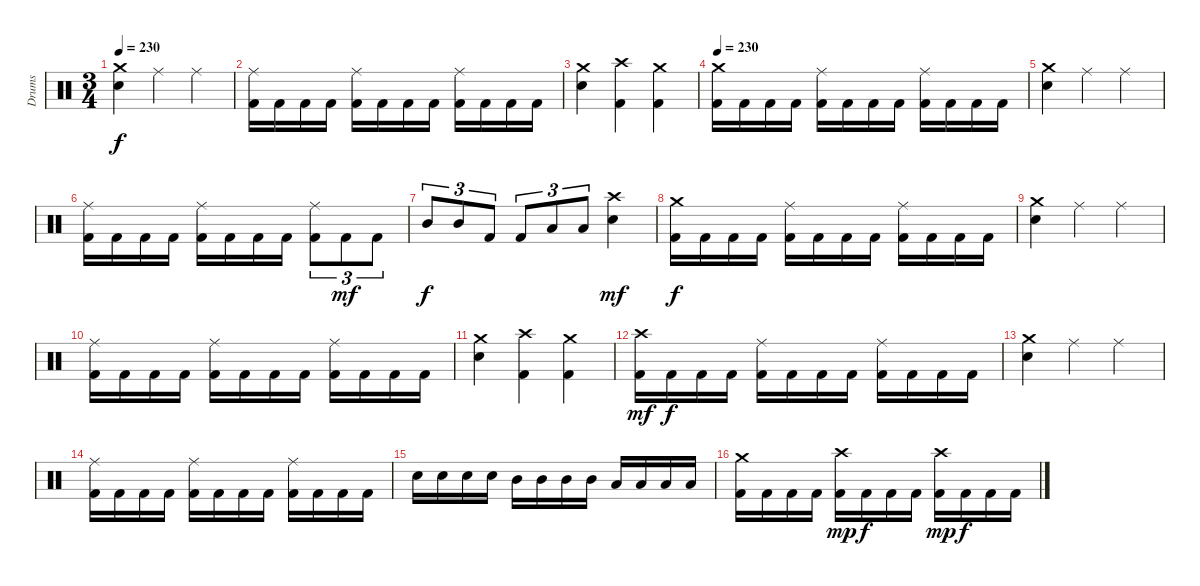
\track ("Drums" "Drums") {instrument percussion}
\staff {score}
\articulation defaults
\ts (3 4)
\tempo 230
\clef neutral
\ks c
("Crash medium (hit)" "Electric Snare (hit)").4{dy f} "Ride (middle)".4 "Ride (middle)".4 |
("Ride (middle)" "Kick (hit) 2").16 "Kick (hit) 2".16 "Kick (hit) 2".16 "Kick (hit) 2".16 ("Ride (middle)" "Kick (hit) 2").16 "Kick (hit) 2".16 "Kick (hit) 2".16 "Kick (hit) 2".16 ("Ride (middle)" "Kick (hit) 2").16 "Kick (hit) 2".16 "Kick (hit) 2".16 "Kick (hit) 2".16 |
("Crash medium (hit)" "Electric Snare (hit)").4 ("Crash high (hit)" "Kick (hit) 2").4 ("Crash medium (hit)" "Kick (hit) 2").4 |
\tempo 230
("Crash medium (hit)" "Kick (hit) 2").16 "Kick (hit) 2".16 "Kick (hit) 2".16 "Kick (hit) 2".16 ("Ride (middle)" "Kick (hit) 2").16 "Kick (hit) 2".16 "Kick (hit) 2".16 "Kick (hit) 2".16 ("Ride (middle)" "Kick (hit) 2").16 "Kick (hit) 2".16 "Kick (hit) 2".16 "Kick (hit) 2".16 |
("Crash medium (hit)" "Electric Snare (hit)").4 "Ride (middle)".4 "Ride (middle)".4 |
("Ride (middle)" "Kick (hit) 2").16 "Kick (hit) 2".16 "Kick (hit) 2".16 "Kick (hit) 2".16 ("Ride (middle)" "Kick (hit) 2").16 "Kick (hit) 2".16 "Kick (hit) 2".16 "Kick (hit) 2".16 ("Ride (middle)" "Kick (hit) 2").8{tu (3 2)} "Kick (hit) 2".8{tu (3 2) dy mf} "Kick (hit) 2".8{tu (3 2)} |
"Mid Tom (hit)".8{tu (3 2) dy f} "Mid Tom (hit)".8{tu (3 2)} "Kick (hit) 2".8{tu (3 2)} "Kick (hit) 2".8{tu (3 2)} "Low Tom (hit)".8{tu (3 2)} "Low Tom (hit)".8{tu (3 2)} ("Crash high (hit)" "Electric Snare (hit)").4{dy mf} |
("Crash medium (hit)" "Kick (hit) 2").16{dy f} "Kick (hit) 2".16 "Kick (hit) 2".16 "Kick (hit) 2".16 ("Ride (middle)" "Kick (hit) 2").16 "Kick (hit) 2".16 "Kick (hit) 2".16 "Kick (hit) 2".16 ("Ride (middle)" "Kick (hit) 2").16 "Kick (hit) 2".16 "Kick (hit) 2".16 "Kick (hit) 2".16 |
("Crash medium (hit)" "Electric Snare (hit)").4 "Ride (middle)".4 "Ride (middle)".4 |
("Ride (middle)" "Kick (hit) 2").16 "Kick (hit) 2".16 "Kick (hit) 2".16 "Kick (hit) 2".16 ("Ride (middle)" "Kick (hit) 2").16 "Kick (hit) 2".16 "Kick (hit) 2".16 "Kick (hit) 2".16 ("Ride (middle)" "Kick (hit) 2").16 "Kick (hit) 2".16 "Kick (hit) 2".16 "Kick (hit) 2".16 |
("Crash medium (hit)" "Electric Snare (hit)").4 ("Crash high (hit)" "Kick (hit) 2").4 ("Crash medium (hit)" "Kick (hit) 2").4 |
("Crash high (hit)" "Kick (hit) 2").16{dy mf} "Kick (hit) 2".16{dy f} "Kick (hit) 2".16 "Kick (hit) 2".16 ("Ride (middle)" "Kick (hit) 2").16 "Kick (hit) 2".16 "Kick (hit) 2".16 "Kick (hit) 2".16 ("Ride (middle)" "Kick (hit) 2").16 "Kick (hit) 2".16 "Kick (hit) 2".16 "Kick (hit) 2".16 |
("Crash medium (hit)" "Electric Snare (hit)").4 "Ride (middle)".4 "Ride (middle)".4 |
("Ride (middle)" "Kick (hit) 2").16 "Kick (hit) 2".16 "Kick (hit) 2".16 "Kick (hit) 2".16 ("Ride (middle)" "Kick (hit) 2").16 "Kick (hit) 2".16 "Kick (hit) 2".16 "Kick (hit) 2".16 ("Ride (middle)" "Kick (hit) 2").16 "Kick (hit) 2".16 "Kick (hit) 2".16 "Kick (hit) 2".16 |
"Electric Snare (hit)".16 "Electric Snare (hit)".16 "Electric Snare (hit)".16 "Electric Snare (hit)".16 "Mid Tom (hit)".16 "Mid Tom (hit)".16 "Mid Tom (hit)".16 "Mid Tom (hit)".16 "Low Tom (hit)".16 "Low Tom (hit)".16 "Low Tom (hit)".16 "Low Tom (hit)".16 |
("Crash medium (hit)" "Kick (hit) 2").16 "Kick (hit) 2".16 "Kick (hit) 2".16 "Kick (hit) 2".16 ("Crash high (hit)" "Kick (hit) 2").16{dy mp} "Kick (hit) 2".16{dy f} "Kick (hit) 2".16 "Kick (hit) 2".16 ("Crash high (hit)" "Kick (hit) 2").16{dy mp} "Kick (hit) 2".16{dy f} "Kick (hit) 2".16 "Kick (hit) 2".16
